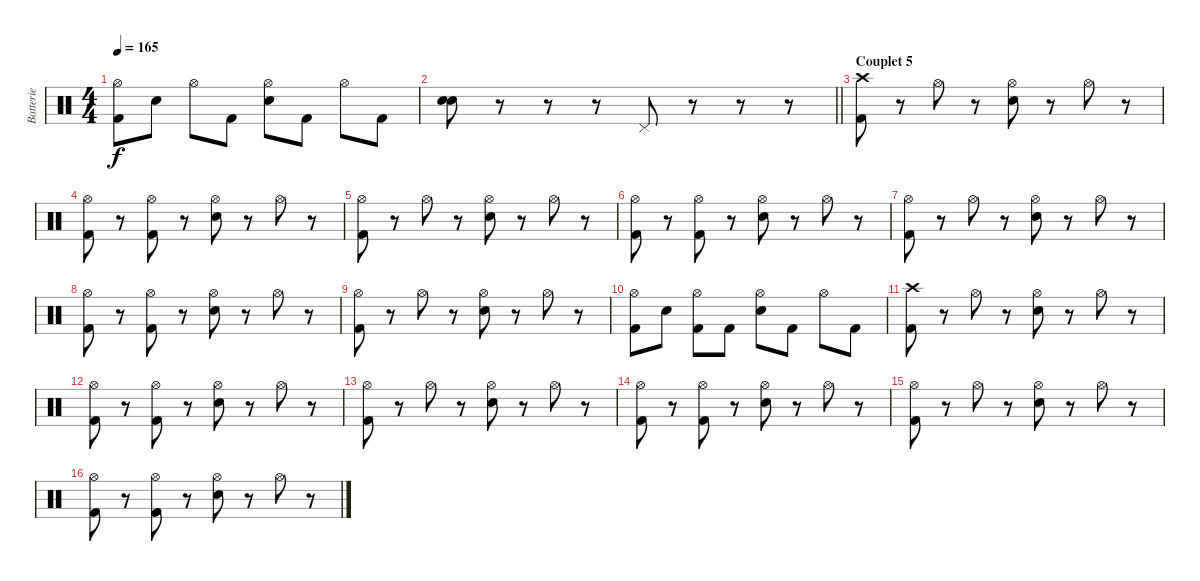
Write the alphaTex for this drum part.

\track ("Batterie" "Batterie") {instrument percussion}
\staff {score}
\articulation defaults
\ts (4 4)
\tempo 165
\clef neutral
\ks c
("Hi-Hat (open)" "Kick (hit) 2").8{dy f} "Electric Snare (hit)".8 "Hi-Hat (open)".8 "Kick (hit) 2".8 ("Hi-Hat (open)" "Electric Snare (hit)").8 "Kick (hit) 2".8 "Hi-Hat (open)".8 "Kick (hit) 2".8 |
\barLineRight lightlight
("Electric Snare (hit)" "Electric Snare (hit)").8{bu 120} r.8 r.8 r.8 "Pedal Hi-Hat (hit)".8 r.8 r.8 r.8 |
\section ("" "Couplet 5")
("Crash high (hit)" "Kick (hit) 2").8 r.8 "Hi-Hat (open)".8 r.8 ("Hi-Hat (open)" "Electric Snare (hit)").8 r.8 "Hi-Hat (open)".8 r.8 |
("Hi-Hat (open)" "Kick (hit) 2").8 r.8 ("Hi-Hat (open)" "Kick (hit) 2").8 r.8 ("Hi-Hat (open)" "Electric Snare (hit)").8 r.8 "Hi-Hat (open)".8 r.8 |
("Hi-Hat (open)" "Kick (hit) 2").8 r.8 "Hi-Hat (open)".8 r.8 ("Hi-Hat (open)" "Electric Snare (hit)").8 r.8 "Hi-Hat (open)".8 r.8 |
("Hi-Hat (open)" "Kick (hit) 2").8 r.8 ("Hi-Hat (open)" "Kick (hit) 2").8 r.8 ("Hi-Hat (open)" "Electric Snare (hit)").8 r.8 "Hi-Hat (open)".8 r.8 |
("Hi-Hat (open)" "Kick (hit) 2").8 r.8 "Hi-Hat (open)".8 r.8 ("Hi-Hat (open)" "Electric Snare (hit)").8 r.8 "Hi-Hat (open)".8 r.8 |
("Hi-Hat (open)" "Kick (hit) 2").8 r.8 ("Hi-Hat (open)" "Kick (hit) 2").8 r.8 ("Hi-Hat (open)" "Electric Snare (hit)").8 r.8 "Hi-Hat (open)".8 r.8 |
("Hi-Hat (open)" "Kick (hit) 2").8 r.8 "Hi-Hat (open)".8 r.8 ("Hi-Hat (open)" "Electric Snare (hit)").8 r.8 "Hi-Hat (open)".8 r.8 |
("Hi-Hat (open)" "Kick (hit) 2").8 "Electric Snare (hit)".8 ("Hi-Hat (open)" "Kick (hit) 2").8 "Kick (hit) 2".8 ("Hi-Hat (open)" "Electric Snare (hit)").8 "Kick (hit) 2".8 "Hi-Hat (open)".8 "Kick (hit) 2".8 |
("Crash high (hit)" "Kick (hit) 2").8 r.8 "Hi-Hat (open)".8 r.8 ("Hi-Hat (open)" "Electric Snare (hit)").8 r.8 "Hi-Hat (open)".8 r.8 |
("Hi-Hat (open)" "Kick (hit) 2").8 r.8 ("Hi-Hat (open)" "Kick (hit) 2").8 r.8 ("Hi-Hat (open)" "Electric Snare (hit)").8 r.8 "Hi-Hat (open)".8 r.8 |
("Hi-Hat (open)" "Kick (hit) 2").8 r.8 "Hi-Hat (open)".8 r.8 ("Hi-Hat (open)" "Electric Snare (hit)").8 r.8 "Hi-Hat (open)".8 r.8 |
("Hi-Hat (open)" "Kick (hit) 2").8 r.8 ("Hi-Hat (open)" "Kick (hit) 2").8 r.8 ("Hi-Hat (open)" "Electric Snare (hit)").8 r.8 "Hi-Hat (open)".8 r.8 |
("Hi-Hat (open)" "Kick (hit) 2").8 r.8 "Hi-Hat (open)".8 r.8 ("Hi-Hat (open)" "Electric Snare (hit)").8 r.8 "Hi-Hat (open)".8 r.8 |
("Hi-Hat (open)" "Kick (hit) 2").8 r.8 ("Hi-Hat (open)" "Kick (hit) 2").8 r.8 ("Hi-Hat (open)" "Electric Snare (hit)").8 r.8 "Hi-Hat (open)".8 r.8
